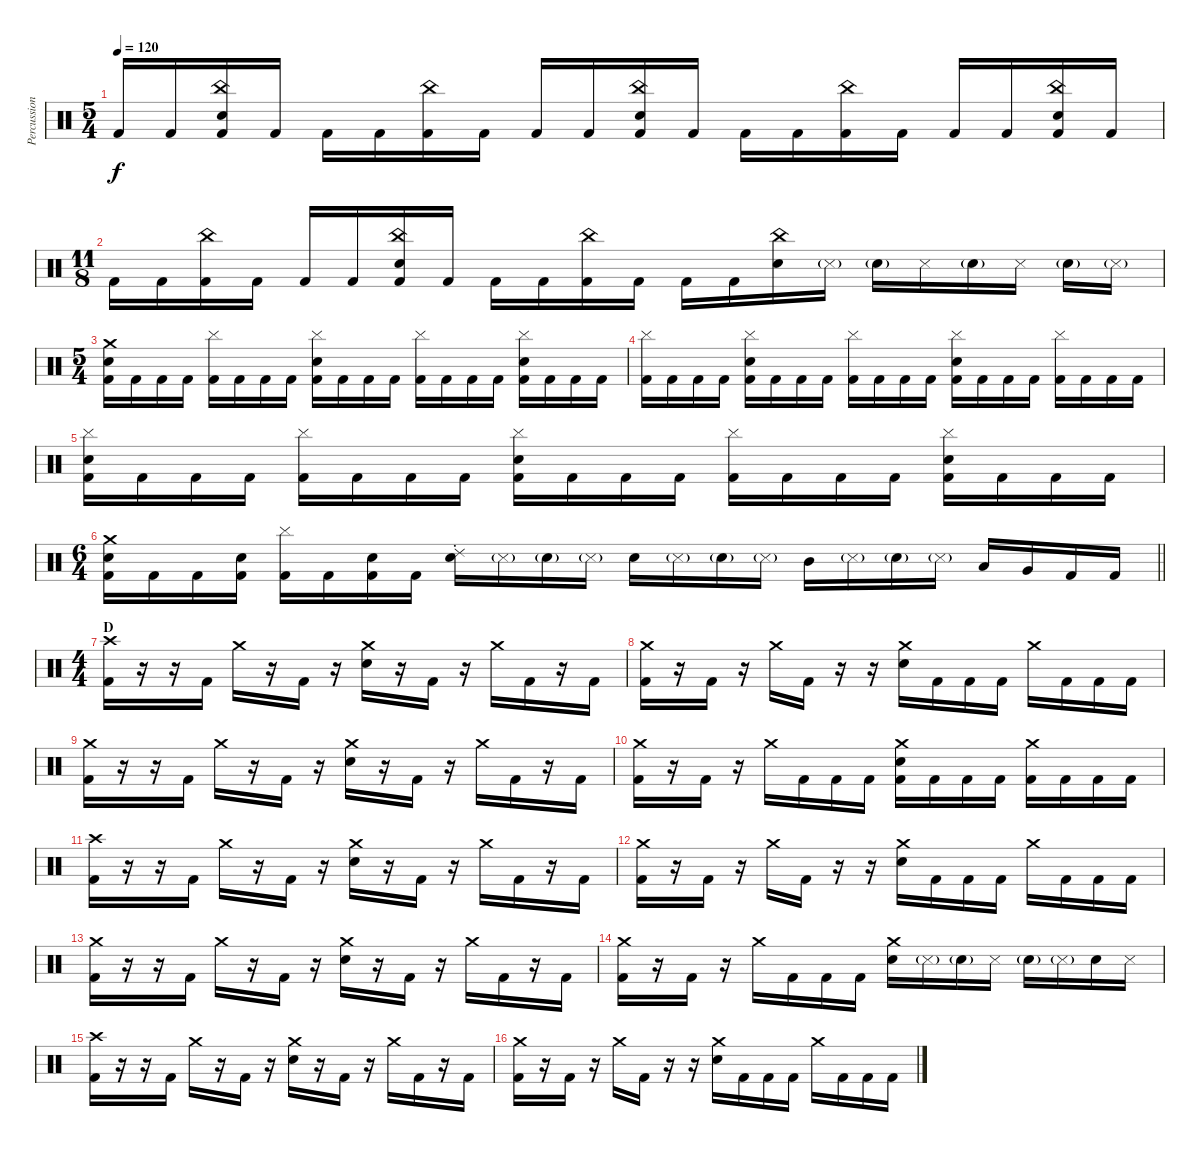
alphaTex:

\track ("Percussion" "Percussion") {instrument percussion}
\staff {score}
\articulation defaults
\ts (5 4)
\tempo 120
\clef neutral
\ks c "Kick (hit) 2".16{dy f} "Kick (hit) 2".16
("China (hit)" "Snare (hit) 2" "Kick (hit) 2").16 "Kick (hit) 2".16 "Kick (hit) 2".16 "Kick (hit) 2".16 ("China (hit)" "Kick (hit) 2").16 "Kick (hit) 2".16 "Kick (hit) 2".16 "Kick (hit) 2".16 ("China (hit)" "Snare (hit) 2" "Kick (hit) 2").16 "Kick (hit) 2".16 "Kick (hit) 2".16 "Kick (hit) 2".16 ("China (hit)" "Kick (hit) 2").16 "Kick (hit) 2".16 "Kick (hit) 2".16 "Kick (hit) 2".16 ("China (hit)" "Snare (hit) 2" "Kick (hit) 2").16 "Kick (hit) 2".16 |
\ts (11 8)
"Kick (hit) 2".16 "Kick (hit) 2".16 ("China (hit)" "Kick (hit) 2").16 "Kick (hit) 2".16 "Kick (hit) 2".16 "Kick (hit) 2".16 ("China (hit)" "Snare (hit) 2" "Kick (hit) 2").16 "Kick (hit) 2".16 "Kick (hit) 2".16 "Kick (hit) 2".16 ("China (hit)" "Kick (hit) 2").16 "Kick (hit) 2".16 "Kick (hit) 2".16 "Kick (hit) 2".16 ("China (hit)" "Snare (hit) 2").16 "Metronome (hit)"{g}.16 "Snare (hit) 2"{g}.16 "Metronome (hit)".16 "Snare (hit) 2"{g}.16 "Metronome (hit)".16 "Snare (hit) 2"{g}.16 "Metronome (hit)"{g}.16 |
\ts (5 4)
("Crash medium (hit)" "Snare (hit) 2" "Kick (hit) 2").16 "Kick (hit) 2".16 "Kick (hit) 2".16 "Kick (hit) 2".16 ("Cymbal (hit)" "Kick (hit) 2").16 "Kick (hit) 2".16 "Kick (hit) 2".16 "Kick (hit) 2".16 ("Cymbal (hit)" "Snare (hit) 2" "Kick (hit) 2").16 "Kick (hit) 2".16 "Kick (hit) 2".16 "Kick (hit) 2".16 ("Cymbal (hit)" "Kick (hit) 2").16 "Kick (hit) 2".16 "Kick (hit) 2".16 "Kick (hit) 2".16 ("Cymbal (hit)" "Snare (hit) 2" "Kick (hit) 2").16 "Kick (hit) 2".16 "Kick (hit) 2".16 "Kick (hit) 2".16 |
("Cymbal (hit)" "Kick (hit) 2").16 "Kick (hit) 2".16 "Kick (hit) 2".16 "Kick (hit) 2".16 ("Cymbal (hit)" "Snare (hit) 2" "Kick (hit) 2").16 "Kick (hit) 2".16 "Kick (hit) 2".16 "Kick (hit) 2".16 ("Cymbal (hit)" "Kick (hit) 2").16 "Kick (hit) 2".16 "Kick (hit) 2".16 "Kick (hit) 2".16 ("Cymbal (hit)" "Snare (hit) 2" "Kick (hit) 2").16 "Kick (hit) 2".16 "Kick (hit) 2".16 "Kick (hit) 2".16 ("Cymbal (hit)" "Kick (hit) 2").16 "Kick (hit) 2".16 "Kick (hit) 2".16 "Kick (hit) 2".16 |
("Cymbal (hit)" "Snare (hit) 2" "Kick (hit) 2").16 "Kick (hit) 2".16 "Kick (hit) 2".16 "Kick (hit) 2".16 ("Cymbal (hit)" "Kick (hit) 2").16 "Kick (hit) 2".16 "Kick (hit) 2".16 "Kick (hit) 2".16 ("Cymbal (hit)" "Snare (hit) 2" "Kick (hit) 2").16 "Kick (hit) 2".16 "Kick (hit) 2".16 "Kick (hit) 2".16 ("Cymbal (hit)" "Kick (hit) 2").16 "Kick (hit) 2".16 "Kick (hit) 2".16 "Kick (hit) 2".16 ("Cymbal (hit)" "Snare (hit) 2" "Kick (hit) 2").16 "Kick (hit) 2".16 "Kick (hit) 2".16 "Kick (hit) 2".16 |
\ts (6 4)
\barLineRight lightlight
("Crash medium (hit)" "Snare (hit) 2" "Kick (hit) 2").16 "Kick (hit) 2".16 "Kick (hit) 2".16 ("Snare (hit) 2" "Kick (hit) 2").16 ("Cymbal (hit)" "Kick (hit) 2").16 "Kick (hit) 2".16 ("Snare (hit) 2" "Kick (hit) 2").16 "Kick (hit) 2".16 ("Ride (choke) 2" "Snare (hit) 2").16 "Metronome (hit)"{g}.16 "Snare (hit) 2"{g}.16 "Metronome (hit)"{g}.16 "Snare (hit) 2".16 "Metronome (hit)"{g}.16 "Snare (hit) 2"{g}.16 "Metronome (hit)"{g}.16 "Mid Tom (hit)".16 "Metronome (hit)"{g}.16 "Snare (hit) 2"{g}.16 "Metronome (hit)"{g}.16 "Low Tom (hit)".16 "Very Low Tom (hit)".16 "Kick (hit) 2".16 "Kick (hit) 2".16 |
\ts (4 4)
\section ("" "D")
("Crash high (hit)" "Kick (hit) 2").16 r.16 r.16 "Kick (hit) 2".16 "Crash medium (hit)".16 r.16 "Kick (hit) 2".16 r.16 ("Crash medium (hit)" "Snare (hit) 2").16 r.16 "Kick (hit) 2".16 r.16 "Crash medium (hit)".16 "Kick (hit) 2".16 r.16 "Kick (hit) 2".16 |
("Crash medium (hit)" "Kick (hit) 2").16 r.16 "Kick (hit) 2".16 r.16 "Crash medium (hit)".16 "Kick (hit) 2".16 r.16 r.16 ("Crash medium (hit)" "Snare (hit) 2").16 "Kick (hit) 2".16 "Kick (hit) 2".16 "Kick (hit) 2".16 "Crash medium (hit)".16 "Kick (hit) 2".16 "Kick (hit) 2".16 "Kick (hit) 2".16 |
("Crash medium (hit)" "Kick (hit) 2").16 r.16 r.16 "Kick (hit) 2".16 "Crash medium (hit)".16 r.16 "Kick (hit) 2".16 r.16 ("Crash medium (hit)" "Snare (hit) 2").16 r.16 "Kick (hit) 2".16 r.16 "Crash medium (hit)".16 "Kick (hit) 2".16 r.16 "Kick (hit) 2".16 |
("Crash medium (hit)" "Kick (hit) 2").16 r.16 "Kick (hit) 2".16 r.16 "Crash medium (hit)".16 "Kick (hit) 2".16 "Kick (hit) 2".16 "Kick (hit) 2".16 ("Crash medium (hit)" "Snare (hit) 2" "Kick (hit) 2").16 "Kick (hit) 2".16 "Kick (hit) 2".16 "Kick (hit) 2".16 ("Crash medium (hit)" "Kick (hit) 2").16 "Kick (hit) 2".16 "Kick (hit) 2".16 "Kick (hit) 2".16 |
("Crash high (hit)" "Kick (hit) 2").16 r.16 r.16 "Kick (hit) 2".16 "Crash medium (hit)".16 r.16 "Kick (hit) 2".16 r.16 ("Crash medium (hit)" "Snare (hit) 2").16 r.16 "Kick (hit) 2".16 r.16 "Crash medium (hit)".16 "Kick (hit) 2".16 r.16 "Kick (hit) 2".16 |
("Crash medium (hit)" "Kick (hit) 2").16 r.16 "Kick (hit) 2".16 r.16 "Crash medium (hit)".16 "Kick (hit) 2".16 r.16 r.16 ("Crash medium (hit)" "Snare (hit) 2").16 "Kick (hit) 2".16 "Kick (hit) 2".16 "Kick (hit) 2".16 "Crash medium (hit)".16 "Kick (hit) 2".16 "Kick (hit) 2".16 "Kick (hit) 2".16 |
("Crash medium (hit)" "Kick (hit) 2").16 r.16 r.16 "Kick (hit) 2".16 "Crash medium (hit)".16 r.16 "Kick (hit) 2".16 r.16 ("Crash medium (hit)" "Snare (hit) 2").16 r.16 "Kick (hit) 2".16 r.16 "Crash medium (hit)".16 "Kick (hit) 2".16 r.16 "Kick (hit) 2".16 |
("Crash medium (hit)" "Kick (hit) 2").16 r.16 "Kick (hit) 2".16 r.16 "Crash medium (hit)".16 "Kick (hit) 2".16 "Kick (hit) 2".16 "Kick (hit) 2".16 ("Crash medium (hit)" "Snare (hit) 2").16 "Metronome (hit)"{g}.16 "Snare (hit) 2"{g}.16 "Metronome (hit)".16 "Snare (hit) 2"{g}.16 "Metronome (hit)"{g}.16 "Snare (hit) 2".16 "Metronome (hit)".16 |
("Crash high (hit)" "Kick (hit) 2").16 r.16 r.16 "Kick (hit) 2".16 "Crash medium (hit)".16 r.16 "Kick (hit) 2".16 r.16 ("Crash medium (hit)" "Snare (hit) 2").16 r.16 "Kick (hit) 2".16 r.16 "Crash medium (hit)".16 "Kick (hit) 2".16 r.16 "Kick (hit) 2".16 |
("Crash medium (hit)" "Kick (hit) 2").16 r.16 "Kick (hit) 2".16 r.16 "Crash medium (hit)".16 "Kick (hit) 2".16 r.16 r.16 ("Crash medium (hit)" "Snare (hit) 2").16 "Kick (hit) 2".16 "Kick (hit) 2".16 "Kick (hit) 2".16 "Crash medium (hit)".16 "Kick (hit) 2".16 "Kick (hit) 2".16 "Kick (hit) 2".16
